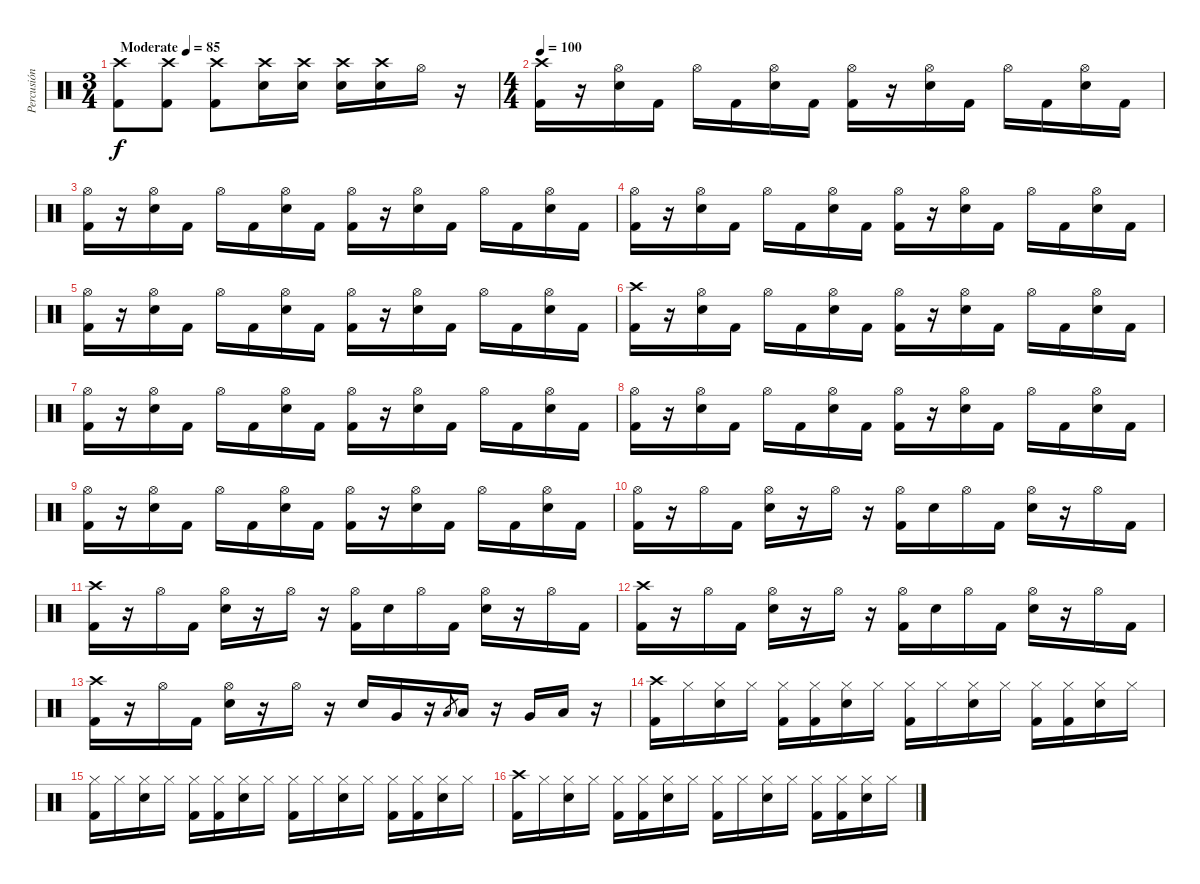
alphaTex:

\track ("Percusión" "Percusión") {instrument percussion}
\staff {score}
\articulation defaults
\ts (3 4)
\tempo (85 "Moderate")
\clef neutral
\ks c
("Crash high (hit)" "Kick (hit) 2").8{dy f} ("Crash high (hit)" "Kick (hit) 2").8 ("Crash high (hit)" "Kick (hit) 2").8 ("Crash high (hit)" "Electric Snare (hit)").16 ("Crash high (hit)" "Electric Snare (hit)").16 ("Crash high (hit)" "Electric Snare (hit)").16 ("Crash high (hit)" "Electric Snare (hit)").16 "Hi-Hat (open)".16 r.16 |
\ts (4 4)
\tempo 100
("Crash high (hit)" "Kick (hit) 2").16 r.16 ("Hi-Hat (open)" "Electric Snare (hit)").16 "Kick (hit) 2".16 "Hi-Hat (open)".16 "Kick (hit) 2".16 ("Hi-Hat (open)" "Electric Snare (hit)").16 "Kick (hit) 2".16 ("Hi-Hat (open)" "Kick (hit) 2").16 r.16 ("Hi-Hat (open)" "Electric Snare (hit)").16 "Kick (hit) 2".16 "Hi-Hat (open)".16 "Kick (hit) 2".16 ("Hi-Hat (open)" "Electric Snare (hit)").16 "Kick (hit) 2".16 |
("Hi-Hat (open)" "Kick (hit) 2").16 r.16 ("Hi-Hat (open)" "Electric Snare (hit)").16 "Kick (hit) 2".16 "Hi-Hat (open)".16 "Kick (hit) 2".16 ("Hi-Hat (open)" "Electric Snare (hit)").16 "Kick (hit) 2".16 ("Hi-Hat (open)" "Kick (hit) 2").16 r.16 ("Hi-Hat (open)" "Electric Snare (hit)").16 "Kick (hit) 2".16 "Hi-Hat (open)".16 "Kick (hit) 2".16 ("Hi-Hat (open)" "Electric Snare (hit)").16 "Kick (hit) 2".16 |
("Hi-Hat (open)" "Kick (hit) 2").16 r.16 ("Hi-Hat (open)" "Electric Snare (hit)").16 "Kick (hit) 2".16 "Hi-Hat (open)".16 "Kick (hit) 2".16 ("Hi-Hat (open)" "Electric Snare (hit)").16 "Kick (hit) 2".16 ("Hi-Hat (open)" "Kick (hit) 2").16 r.16 ("Hi-Hat (open)" "Electric Snare (hit)").16 "Kick (hit) 2".16 "Hi-Hat (open)".16 "Kick (hit) 2".16 ("Hi-Hat (open)" "Electric Snare (hit)").16 "Kick (hit) 2".16 |
("Hi-Hat (open)" "Kick (hit) 2").16 r.16 ("Hi-Hat (open)" "Electric Snare (hit)").16 "Kick (hit) 2".16 "Hi-Hat (open)".16 "Kick (hit) 2".16 ("Hi-Hat (open)" "Electric Snare (hit)").16 "Kick (hit) 2".16 ("Hi-Hat (open)" "Kick (hit) 2").16 r.16 ("Hi-Hat (open)" "Electric Snare (hit)").16 "Kick (hit) 2".16 "Hi-Hat (open)".16 "Kick (hit) 2".16 ("Hi-Hat (open)" "Electric Snare (hit)").16 "Kick (hit) 2".16 |
("Crash high (hit)" "Kick (hit) 2").16 r.16 ("Hi-Hat (open)" "Electric Snare (hit)").16 "Kick (hit) 2".16 "Hi-Hat (open)".16 "Kick (hit) 2".16 ("Hi-Hat (open)" "Electric Snare (hit)").16 "Kick (hit) 2".16 ("Hi-Hat (open)" "Kick (hit) 2").16 r.16 ("Hi-Hat (open)" "Electric Snare (hit)").16 "Kick (hit) 2".16 "Hi-Hat (open)".16 "Kick (hit) 2".16 ("Hi-Hat (open)" "Electric Snare (hit)").16 "Kick (hit) 2".16 |
("Hi-Hat (open)" "Kick (hit) 2").16 r.16 ("Hi-Hat (open)" "Electric Snare (hit)").16 "Kick (hit) 2".16 "Hi-Hat (open)".16 "Kick (hit) 2".16 ("Hi-Hat (open)" "Electric Snare (hit)").16 "Kick (hit) 2".16 ("Hi-Hat (open)" "Kick (hit) 2").16 r.16 ("Hi-Hat (open)" "Electric Snare (hit)").16 "Kick (hit) 2".16 "Hi-Hat (open)".16 "Kick (hit) 2".16 ("Hi-Hat (open)" "Electric Snare (hit)").16 "Kick (hit) 2".16 |
("Hi-Hat (open)" "Kick (hit) 2").16 r.16 ("Hi-Hat (open)" "Electric Snare (hit)").16 "Kick (hit) 2".16 "Hi-Hat (open)".16 "Kick (hit) 2".16 ("Hi-Hat (open)" "Electric Snare (hit)").16 "Kick (hit) 2".16 ("Hi-Hat (open)" "Kick (hit) 2").16 r.16 ("Hi-Hat (open)" "Electric Snare (hit)").16 "Kick (hit) 2".16 "Hi-Hat (open)".16 "Kick (hit) 2".16 ("Hi-Hat (open)" "Electric Snare (hit)").16 "Kick (hit) 2".16 |
("Hi-Hat (open)" "Kick (hit) 2").16 r.16 ("Hi-Hat (open)" "Electric Snare (hit)").16 "Kick (hit) 2".16 "Hi-Hat (open)".16 "Kick (hit) 2".16 ("Hi-Hat (open)" "Electric Snare (hit)").16 "Kick (hit) 2".16 ("Hi-Hat (open)" "Kick (hit) 2").16 r.16 ("Hi-Hat (open)" "Electric Snare (hit)").16 "Kick (hit) 2".16 "Hi-Hat (open)".16 "Kick (hit) 2".16 ("Hi-Hat (open)" "Electric Snare (hit)").16 "Kick (hit) 2".16 |
("Hi-Hat (open)" "Kick (hit) 2").16 r.16 "Hi-Hat (open)".16 "Kick (hit) 2".16 ("Hi-Hat (open)" "Electric Snare (hit)").16 r.16 "Hi-Hat (open)".16 r.16 ("Hi-Hat (open)" "Kick (hit) 2").16 "Electric Snare (hit)".16 "Hi-Hat (open)".16 "Kick (hit) 2".16 ("Hi-Hat (open)" "Electric Snare (hit)").16 r.16 "Hi-Hat (open)".16 "Kick (hit) 2".16 |
("Crash high (hit)" "Kick (hit) 2").16 r.16 "Hi-Hat (open)".16 "Kick (hit) 2".16 ("Hi-Hat (open)" "Electric Snare (hit)").16 r.16 "Hi-Hat (open)".16 r.16 ("Hi-Hat (open)" "Kick (hit) 2").16 "Electric Snare (hit)".16 "Hi-Hat (open)".16 "Kick (hit) 2".16 ("Hi-Hat (open)" "Electric Snare (hit)").16 r.16 "Hi-Hat (open)".16 "Kick (hit) 2".16 |
("Crash high (hit)" "Kick (hit) 2").16 r.16 "Hi-Hat (open)".16 "Kick (hit) 2".16 ("Hi-Hat (open)" "Electric Snare (hit)").16 r.16 "Hi-Hat (open)".16 r.16 ("Hi-Hat (open)" "Kick (hit) 2").16 "Electric Snare (hit)".16 "Hi-Hat (open)".16 "Kick (hit) 2".16 ("Hi-Hat (open)" "Electric Snare (hit)").16 r.16 "Hi-Hat (open)".16 "Kick (hit) 2".16 |
("Crash high (hit)" "Kick (hit) 2").16 r.16 "Hi-Hat (open)".16 "Kick (hit) 2".16 ("Hi-Hat (open)" "Electric Snare (hit)").16 r.16 "Hi-Hat (open)".16 r.16 "Electric Snare (hit)".16 "Very Low Tom (hit)".16 r.16 "Low Tom (hit)".8{gr} "Low Tom (hit)".16 r.16 "Very Low Tom (hit)".16 "Low Floor Tom (hit)".16 r.16 |
("Crash high (hit)" "Kick (hit) 2").16 "Hi-Hat (closed)".16 ("Hi-Hat (closed)" "Electric Snare (hit)").16 "Hi-Hat (closed)".16 ("Hi-Hat (closed)" "Kick (hit) 2").16 ("Hi-Hat (closed)" "Kick (hit) 2").16 ("Hi-Hat (closed)" "Electric Snare (hit)").16 "Hi-Hat (closed)".16 ("Hi-Hat (closed)" "Kick (hit) 2").16 "Hi-Hat (closed)".16 ("Hi-Hat (closed)" "Electric Snare (hit)").16 "Hi-Hat (closed)".16 ("Hi-Hat (closed)" "Kick (hit) 2").16 ("Hi-Hat (closed)" "Kick (hit) 2").16 ("Hi-Hat (closed)" "Electric Snare (hit)").16 "Hi-Hat (closed)".16 |
("Hi-Hat (closed)" "Kick (hit) 2").16 "Hi-Hat (closed)".16 ("Hi-Hat (closed)" "Electric Snare (hit)").16 "Hi-Hat (closed)".16 ("Hi-Hat (closed)" "Kick (hit) 2").16 ("Hi-Hat (closed)" "Kick (hit) 2").16 ("Hi-Hat (closed)" "Electric Snare (hit)").16 "Hi-Hat (closed)".16 ("Hi-Hat (closed)" "Kick (hit) 2").16 "Hi-Hat (closed)".16 ("Hi-Hat (closed)" "Electric Snare (hit)").16 "Hi-Hat (closed)".16 ("Hi-Hat (closed)" "Kick (hit) 2").16 ("Hi-Hat (closed)" "Kick (hit) 2").16 ("Hi-Hat (closed)" "Electric Snare (hit)").16 "Hi-Hat (closed)".16 |
("Crash high (hit)" "Kick (hit) 2").16 "Hi-Hat (closed)".16 ("Hi-Hat (closed)" "Electric Snare (hit)").16 "Hi-Hat (closed)".16 ("Hi-Hat (closed)" "Kick (hit) 2").16 ("Hi-Hat (closed)" "Kick (hit) 2").16 ("Hi-Hat (closed)" "Electric Snare (hit)").16 "Hi-Hat (closed)".16 ("Hi-Hat (closed)" "Kick (hit) 2").16 "Hi-Hat (closed)".16 ("Hi-Hat (closed)" "Electric Snare (hit)").16 "Hi-Hat (closed)".16 ("Hi-Hat (closed)" "Kick (hit) 2").16 ("Hi-Hat (closed)" "Kick (hit) 2").16 ("Hi-Hat (closed)" "Electric Snare (hit)").16 "Hi-Hat (closed)".16
